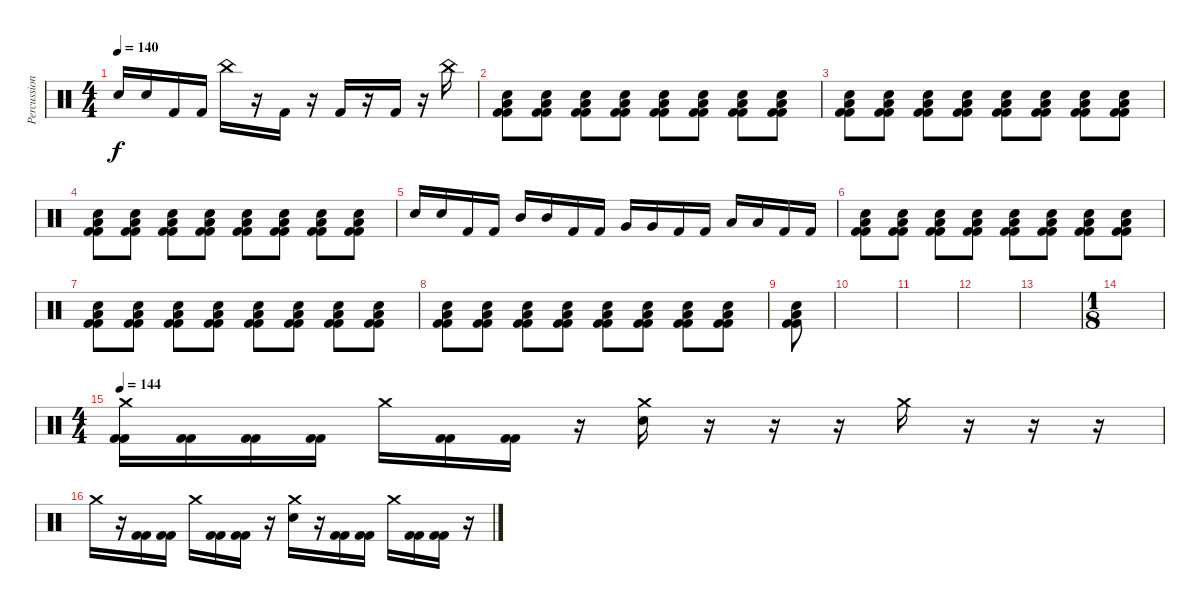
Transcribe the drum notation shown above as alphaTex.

\track ("Percussion" "Percussion") {instrument percussion}
\staff {score}
\articulation defaults
\ts (4 4)
\tempo 140
\clef neutral
\ks c "Electric Snare (hit)".16{dy f} "Electric Snare (hit)".16 "Kick (hit) 2".16 "Kick (hit) 2".16 "China (hit)".16
r.16 "Kick (hit) 2".16 r.16 "Kick (hit) 2".16 r.16 "Kick (hit) 2".16 r.16 "China (hit)".16 |
("Electric Snare (hit)" "Low Tom (hit)" "Kick (hit) 2" "Kick (hit) 2").8{volume 8} ("Electric Snare (hit)" "Low Tom (hit)" "Kick (hit) 2" "Kick (hit) 2").8 ("Electric Snare (hit)" "Low Tom (hit)" "Kick (hit) 2" "Kick (hit) 2").8 ("Electric Snare (hit)" "Low Tom (hit)" "Kick (hit) 2" "Kick (hit) 2").8 ("Electric Snare (hit)" "Low Tom (hit)" "Kick (hit) 2" "Kick (hit) 2").8{volume 10} ("Electric Snare (hit)" "Low Tom (hit)" "Kick (hit) 2" "Kick (hit) 2").8 ("Electric Snare (hit)" "Low Tom (hit)" "Kick (hit) 2" "Kick (hit) 2").8{volume 11} ("Electric Snare (hit)" "Low Tom (hit)" "Kick (hit) 2" "Kick (hit) 2").8 |
("Electric Snare (hit)" "Low Tom (hit)" "Kick (hit) 2" "Kick (hit) 2").8{volume 8} ("Electric Snare (hit)" "Low Tom (hit)" "Kick (hit) 2" "Kick (hit) 2").8 ("Electric Snare (hit)" "Low Tom (hit)" "Kick (hit) 2" "Kick (hit) 2").8 ("Electric Snare (hit)" "Low Tom (hit)" "Kick (hit) 2" "Kick (hit) 2").8 ("Electric Snare (hit)" "Low Tom (hit)" "Kick (hit) 2" "Kick (hit) 2").8{volume 10} ("Electric Snare (hit)" "Low Tom (hit)" "Kick (hit) 2" "Kick (hit) 2").8 ("Electric Snare (hit)" "Low Tom (hit)" "Kick (hit) 2" "Kick (hit) 2").8{volume 11} ("Electric Snare (hit)" "Low Tom (hit)" "Kick (hit) 2" "Kick (hit) 2").8 |
("Electric Snare (hit)" "Low Tom (hit)" "Kick (hit) 2" "Kick (hit) 2").8{volume 8} ("Electric Snare (hit)" "Low Tom (hit)" "Kick (hit) 2" "Kick (hit) 2").8 ("Electric Snare (hit)" "Low Tom (hit)" "Kick (hit) 2" "Kick (hit) 2").8 ("Electric Snare (hit)" "Low Tom (hit)" "Kick (hit) 2" "Kick (hit) 2").8 ("Electric Snare (hit)" "Low Tom (hit)" "Kick (hit) 2" "Kick (hit) 2").8{volume 10} ("Electric Snare (hit)" "Low Tom (hit)" "Kick (hit) 2" "Kick (hit) 2").8 ("Electric Snare (hit)" "Low Tom (hit)" "Kick (hit) 2" "Kick (hit) 2").8{volume 11} ("Electric Snare (hit)" "Low Tom (hit)" "Kick (hit) 2" "Kick (hit) 2").8 |
"Electric Snare (hit)".16 "Electric Snare (hit)".16 "Kick (hit) 2".16 "Kick (hit) 2".16 "Mid Tom (hit)".16 "Mid Tom (hit)".16 "Kick (hit) 2".16 "Kick (hit) 2".16 "Very Low Tom (hit)".16 "Very Low Tom (hit)".16 "Kick (hit) 2".16 "Kick (hit) 2".16 "Low Floor Tom (hit)".16 "Low Floor Tom (hit)".16 "Kick (hit) 2".16 "Kick (hit) 2".16 |
("Electric Snare (hit)" "Low Tom (hit)" "Kick (hit) 2" "Kick (hit) 2").8{volume 8} ("Electric Snare (hit)" "Low Tom (hit)" "Kick (hit) 2" "Kick (hit) 2").8 ("Electric Snare (hit)" "Low Tom (hit)" "Kick (hit) 2" "Kick (hit) 2").8 ("Electric Snare (hit)" "Low Tom (hit)" "Kick (hit) 2" "Kick (hit) 2").8 ("Electric Snare (hit)" "Low Tom (hit)" "Kick (hit) 2" "Kick (hit) 2").8{volume 10} ("Electric Snare (hit)" "Low Tom (hit)" "Kick (hit) 2" "Kick (hit) 2").8 ("Electric Snare (hit)" "Low Tom (hit)" "Kick (hit) 2" "Kick (hit) 2").8{volume 11} ("Electric Snare (hit)" "Low Tom (hit)" "Kick (hit) 2" "Kick (hit) 2").8 |
("Electric Snare (hit)" "Low Tom (hit)" "Kick (hit) 2" "Kick (hit) 2").8{volume 8} ("Electric Snare (hit)" "Low Tom (hit)" "Kick (hit) 2" "Kick (hit) 2").8 ("Electric Snare (hit)" "Low Tom (hit)" "Kick (hit) 2" "Kick (hit) 2").8 ("Electric Snare (hit)" "Low Tom (hit)" "Kick (hit) 2" "Kick (hit) 2").8 ("Electric Snare (hit)" "Low Tom (hit)" "Kick (hit) 2" "Kick (hit) 2").8{volume 10} ("Electric Snare (hit)" "Low Tom (hit)" "Kick (hit) 2" "Kick (hit) 2").8 ("Electric Snare (hit)" "Low Tom (hit)" "Kick (hit) 2" "Kick (hit) 2").8{volume 11} ("Electric Snare (hit)" "Low Tom (hit)" "Kick (hit) 2" "Kick (hit) 2").8 |
("Electric Snare (hit)" "Low Tom (hit)" "Kick (hit) 2" "Kick (hit) 2").8{volume 8} ("Electric Snare (hit)" "Low Tom (hit)" "Kick (hit) 2" "Kick (hit) 2").8 ("Electric Snare (hit)" "Low Tom (hit)" "Kick (hit) 2" "Kick (hit) 2").8 ("Electric Snare (hit)" "Low Tom (hit)" "Kick (hit) 2" "Kick (hit) 2").8 ("Electric Snare (hit)" "Low Tom (hit)" "Kick (hit) 2" "Kick (hit) 2").8{volume 10} ("Electric Snare (hit)" "Low Tom (hit)" "Kick (hit) 2" "Kick (hit) 2").8 ("Electric Snare (hit)" "Low Tom (hit)" "Kick (hit) 2" "Kick (hit) 2").8{volume 11} ("Electric Snare (hit)" "Low Tom (hit)" "Kick (hit) 2" "Kick (hit) 2").8{volume 13} |
("Electric Snare (hit)" "Low Tom (hit)" "Kick (hit) 2" "Kick (hit) 2").8{volume 16} |
|
|
|
|
\ts (1 8)
|
\ts (4 4)
\tempo 140
\tempo 144
("Crash medium (hit)" "Kick (hit) 2" "Kick (hit) 2").16 ("Kick (hit) 2" "Kick (hit) 2").16 ("Kick (hit) 2" "Kick (hit) 2").16 ("Kick (hit) 2" "Kick (hit) 2").16 "Crash medium (hit)".16 ("Kick (hit) 2" "Kick (hit) 2").16 ("Kick (hit) 2" "Kick (hit) 2").16 r.16 ("Crash medium (hit)" "Electric Snare (hit)").16 r.16 r.16 r.16 "Crash medium (hit)".16 r.16 r.16 r.16 |
"Crash medium (hit)".16 r.16 ("Kick (hit) 2" "Kick (hit) 2").16 ("Kick (hit) 2" "Kick (hit) 2").16 "Crash medium (hit)".16 ("Kick (hit) 2" "Kick (hit) 2").16 ("Kick (hit) 2" "Kick (hit) 2").16 r.16 ("Crash medium (hit)" "Electric Snare (hit)").16 r.16 ("Kick (hit) 2" "Kick (hit) 2").16 ("Kick (hit) 2" "Kick (hit) 2").16 "Crash medium (hit)".16 ("Kick (hit) 2" "Kick (hit) 2").16 ("Kick (hit) 2" "Kick (hit) 2").16 r.16
